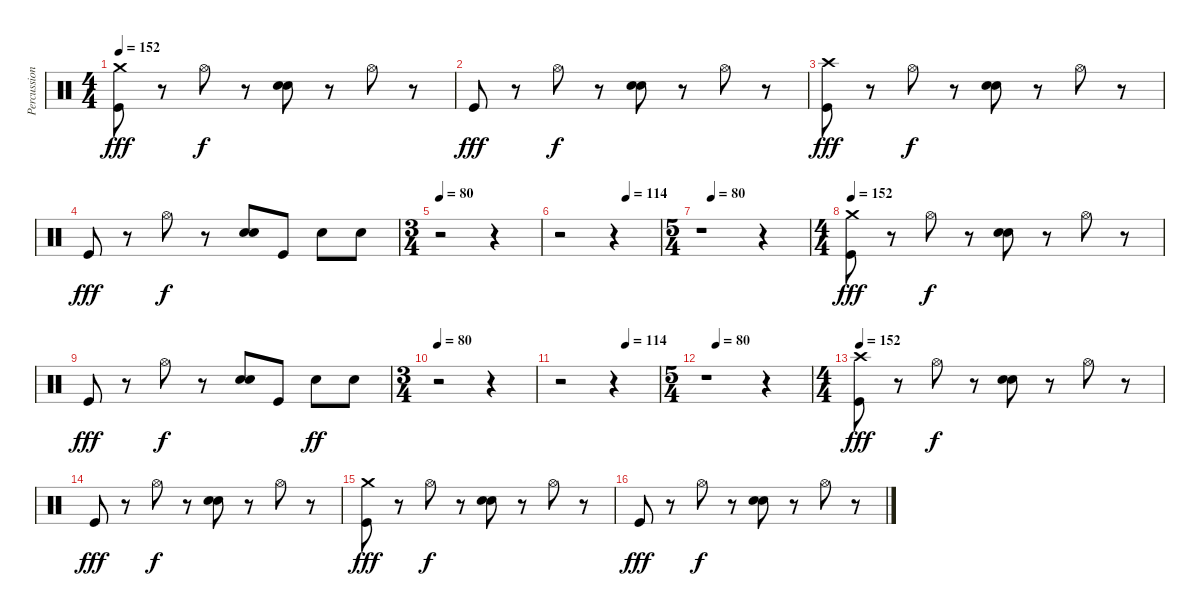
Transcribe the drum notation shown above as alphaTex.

\track ("Percussion" "Percussion") {instrument percussion}
\staff {score}
\articulation defaults
\ts (4 4)
\tempo 152
\clef neutral
\ks c
("Crash medium (hit)" "Kick (hit)").8{dy fff} r.8 "Hi-Hat (open)".8{dy f} r.8 ("Snare (hit) 2" "Electric Snare (hit)").8 r.8 "Hi-Hat (open)".8 r.8 |
"Kick (hit)".8{dy fff} r.8 "Hi-Hat (open)".8{dy f} r.8 ("Snare (hit) 2" "Electric Snare (hit)").8 r.8 "Hi-Hat (open)".8 r.8 |
("Crash high (hit)" "Kick (hit)").8{dy fff} r.8 "Hi-Hat (open)".8{dy f} r.8 ("Snare (hit) 2" "Electric Snare (hit)").8 r.8 "Hi-Hat (open)".8 r.8 |
"Kick (hit)".8{dy fff} r.8 "Hi-Hat (open)".8{dy f} r.8 ("Snare (hit) 2" "Electric Snare (hit)").8 "Kick (hit)".8 "Snare (hit) 2".8 "Snare (hit) 2".8 |
\ts (3 4)
\tempo 80
r.2 r.4 |
\tempo (114 0.6666666666666666)
r.2 r.4 |
\ts (5 4)
\tempo (80 0.1)
r.1 r.4 |
\ts (4 4)
\tempo 152
("Crash medium (hit)" "Kick (hit)").8{dy fff} r.8 "Hi-Hat (open)".8{dy f} r.8 ("Snare (hit) 2" "Electric Snare (hit)").8 r.8 "Hi-Hat (open)".8 r.8 |
"Kick (hit)".8{dy fff} r.8 "Hi-Hat (open)".8{dy f} r.8 ("Snare (hit) 2" "Electric Snare (hit)").8 "Kick (hit)".8 "Snare (hit) 2".8{dy ff} "Snare (hit) 2".8 |
\ts (3 4)
\tempo 80
r.2 r.4 |
\tempo (114 0.6666666666666666)
r.2 r.4 |
\ts (5 4)
\tempo (80 0.1)
r.1 r.4 |
\ts (4 4)
\tempo 152
("Crash high (hit)" "Kick (hit)").8{dy fff} r.8 "Hi-Hat (open)".8{dy f} r.8 ("Snare (hit) 2" "Electric Snare (hit)").8 r.8 "Hi-Hat (open)".8 r.8 |
"Kick (hit)".8{dy fff} r.8 "Hi-Hat (open)".8{dy f} r.8 ("Snare (hit) 2" "Electric Snare (hit)").8 r.8 "Hi-Hat (open)".8 r.8 |
("Crash medium (hit)" "Kick (hit)").8{dy fff} r.8 "Hi-Hat (open)".8{dy f} r.8 ("Snare (hit) 2" "Electric Snare (hit)").8 r.8 "Hi-Hat (open)".8 r.8 |
"Kick (hit)".8{dy fff} r.8 "Hi-Hat (open)".8{dy f} r.8 ("Snare (hit) 2" "Electric Snare (hit)").8 r.8 "Hi-Hat (open)".8 r.8
